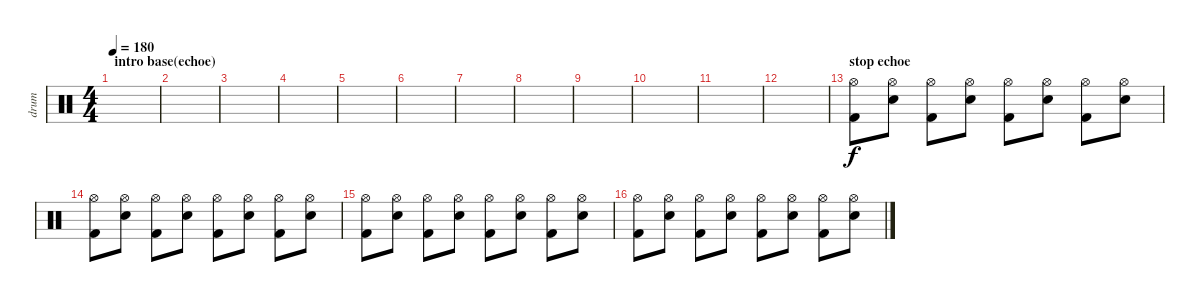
\track ("drum" "drum") {instrument percussion}
\staff {score}
\articulation defaults
\ts (4 4)
\section ("" "intro base(echoe)")
\tempo 180
\clef neutral
\ks c
|
|
|
|
|
|
|
|
|
|
|
|
\section ("" "stop echoe")
("Hi-Hat (open)" "Kick (hit) 2").8 ("Hi-Hat (open)" "Electric Snare (hit)").8 ("Hi-Hat (open)" "Kick (hit) 2").8 ("Hi-Hat (open)" "Electric Snare (hit)").8 ("Hi-Hat (open)" "Kick (hit) 2").8 ("Hi-Hat (open)" "Electric Snare (hit)").8 ("Hi-Hat (open)" "Kick (hit) 2").8 ("Hi-Hat (open)" "Electric Snare (hit)").8 |
("Hi-Hat (open)" "Kick (hit) 2").8 ("Hi-Hat (open)" "Electric Snare (hit)").8 ("Hi-Hat (open)" "Kick (hit) 2").8 ("Hi-Hat (open)" "Electric Snare (hit)").8 ("Hi-Hat (open)" "Kick (hit) 2").8 ("Hi-Hat (open)" "Electric Snare (hit)").8 ("Hi-Hat (open)" "Kick (hit) 2").8 ("Hi-Hat (open)" "Electric Snare (hit)").8 |
("Hi-Hat (open)" "Kick (hit) 2").8 ("Hi-Hat (open)" "Electric Snare (hit)").8 ("Hi-Hat (open)" "Kick (hit) 2").8 ("Hi-Hat (open)" "Electric Snare (hit)").8 ("Hi-Hat (open)" "Kick (hit) 2").8 ("Hi-Hat (open)" "Electric Snare (hit)").8 ("Hi-Hat (open)" "Kick (hit) 2").8 ("Hi-Hat (open)" "Electric Snare (hit)").8 |
("Hi-Hat (open)" "Kick (hit) 2").8 ("Hi-Hat (open)" "Electric Snare (hit)").8 ("Hi-Hat (open)" "Kick (hit) 2").8 ("Hi-Hat (open)" "Electric Snare (hit)").8 ("Hi-Hat (open)" "Kick (hit) 2").8 ("Hi-Hat (open)" "Electric Snare (hit)").8 ("Hi-Hat (open)" "Kick (hit) 2").8 ("Hi-Hat (open)" "Electric Snare (hit)").8
